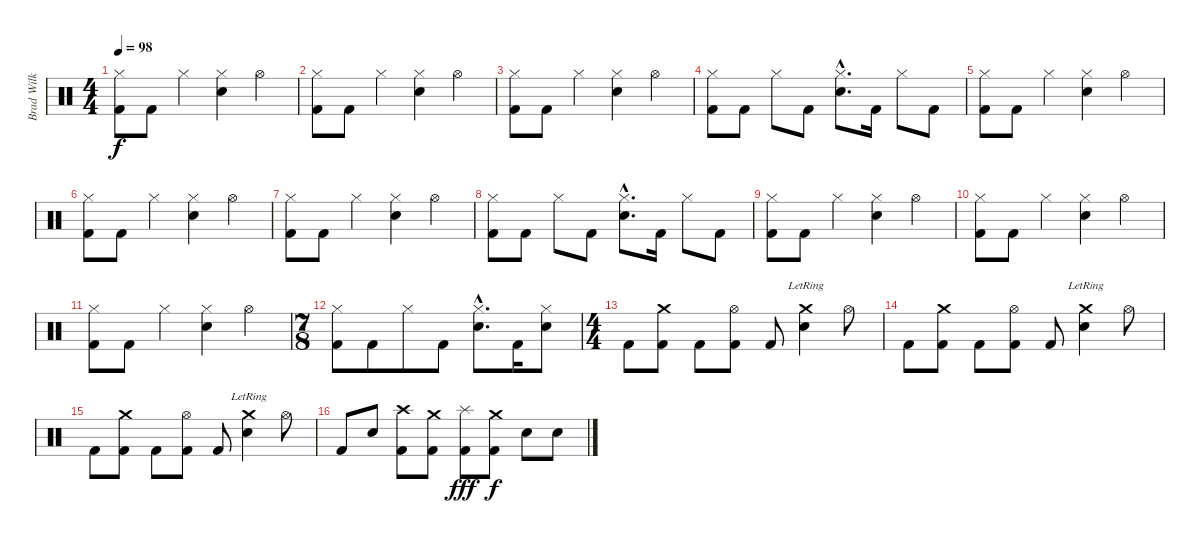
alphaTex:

\track ("Brad Wilk" "Brad Wilk") {instrument percussion}
\staff {score}
\articulation defaults
\ts (4 4)
\tempo 98
\clef neutral
\ks c
("Hi-Hat (closed)" "Kick (hit) 2").8{dy f} "Kick (hit) 2".8 "Hi-Hat (closed)".4 ("Hi-Hat (closed)" "Electric Snare (hit)").4 "Hi-Hat (open)".4 |
("Hi-Hat (closed)" "Kick (hit) 2").8 "Kick (hit) 2".8 "Hi-Hat (closed)".4 ("Hi-Hat (closed)" "Electric Snare (hit)").4 "Hi-Hat (open)".4 |
("Hi-Hat (closed)" "Kick (hit) 2").8 "Kick (hit) 2".8 "Hi-Hat (closed)".4 ("Hi-Hat (closed)" "Electric Snare (hit)").4 "Hi-Hat (open)".4 |
("Hi-Hat (closed)" "Kick (hit) 2").8 "Kick (hit) 2".8 "Hi-Hat (closed)".8 "Kick (hit) 2".8 ("Hi-Hat (closed)"{hac} "Electric Snare (hit)"{hac}).8{d} "Kick (hit) 2".16 "Hi-Hat (closed)".8 "Kick (hit) 2".8 |
("Hi-Hat (closed)" "Kick (hit) 2").8 "Kick (hit) 2".8 "Hi-Hat (closed)".4 ("Hi-Hat (closed)" "Electric Snare (hit)").4 "Hi-Hat (open)".4 |
("Hi-Hat (closed)" "Kick (hit) 2").8 "Kick (hit) 2".8 "Hi-Hat (closed)".4 ("Hi-Hat (closed)" "Electric Snare (hit)").4 "Hi-Hat (open)".4 |
("Hi-Hat (closed)" "Kick (hit) 2").8 "Kick (hit) 2".8 "Hi-Hat (closed)".4 ("Hi-Hat (closed)" "Electric Snare (hit)").4 "Hi-Hat (open)".4 |
("Hi-Hat (closed)" "Kick (hit) 2").8 "Kick (hit) 2".8 "Hi-Hat (closed)".8 "Kick (hit) 2".8 ("Hi-Hat (closed)"{hac} "Electric Snare (hit)"{hac}).8{d} "Kick (hit) 2".16 "Hi-Hat (closed)".8 "Kick (hit) 2".8 |
("Hi-Hat (closed)" "Kick (hit) 2").8 "Kick (hit) 2".8 "Hi-Hat (closed)".4 ("Hi-Hat (closed)" "Electric Snare (hit)").4 "Hi-Hat (open)".4 |
("Hi-Hat (closed)" "Kick (hit) 2").8 "Kick (hit) 2".8 "Hi-Hat (closed)".4 ("Hi-Hat (closed)" "Electric Snare (hit)").4 "Hi-Hat (open)".4 |
("Hi-Hat (closed)" "Kick (hit) 2").8 "Kick (hit) 2".8 "Hi-Hat (closed)".4 ("Hi-Hat (closed)" "Electric Snare (hit)").4 "Hi-Hat (open)".4 |
\ts (7 8)
("Hi-Hat (closed)" "Kick (hit) 2").8 "Kick (hit) 2".8 "Hi-Hat (closed)".8 "Kick (hit) 2".8 ("Hi-Hat (closed)"{hac} "Electric Snare (hit)"{hac}).8{d} "Kick (hit) 2".16 ("Hi-Hat (closed)" "Electric Snare (hit)").8 |
\ts (4 4)
"Kick (hit) 2".8 ("Crash medium (hit)" "Kick (hit) 2").8 "Kick (hit) 2".8 ("Hi-Hat (open)" "Kick (hit) 2").8 "Kick (hit) 2".8 ("Crash medium (hit)" "Electric Snare (hit)"{lr}).4 "Hi-Hat (open)".8 |
"Kick (hit) 2".8 ("Crash medium (hit)" "Kick (hit) 2").8 "Kick (hit) 2".8 ("Hi-Hat (open)" "Kick (hit) 2").8 "Kick (hit) 2".8 ("Crash medium (hit)" "Electric Snare (hit)"{lr}).4 "Hi-Hat (open)".8 |
"Kick (hit) 2".8 ("Crash medium (hit)" "Kick (hit) 2").8 "Kick (hit) 2".8 ("Hi-Hat (open)" "Kick (hit) 2").8 "Kick (hit) 2".8 ("Crash medium (hit)" "Electric Snare (hit)"{lr}).4 "Hi-Hat (open)".8 |
"Kick (hit) 2".8 "Electric Snare (hit)".8 ("Crash high (hit)" "Kick (hit) 2").8 ("Crash medium (hit)" "Kick (hit) 2").8 ("Splash (hit)" "Kick (hit) 2").8{dy fff} ("Crash medium (hit)" "Kick (hit) 2").8{dy f} "Electric Snare (hit)".8 "Electric Snare (hit)".8
